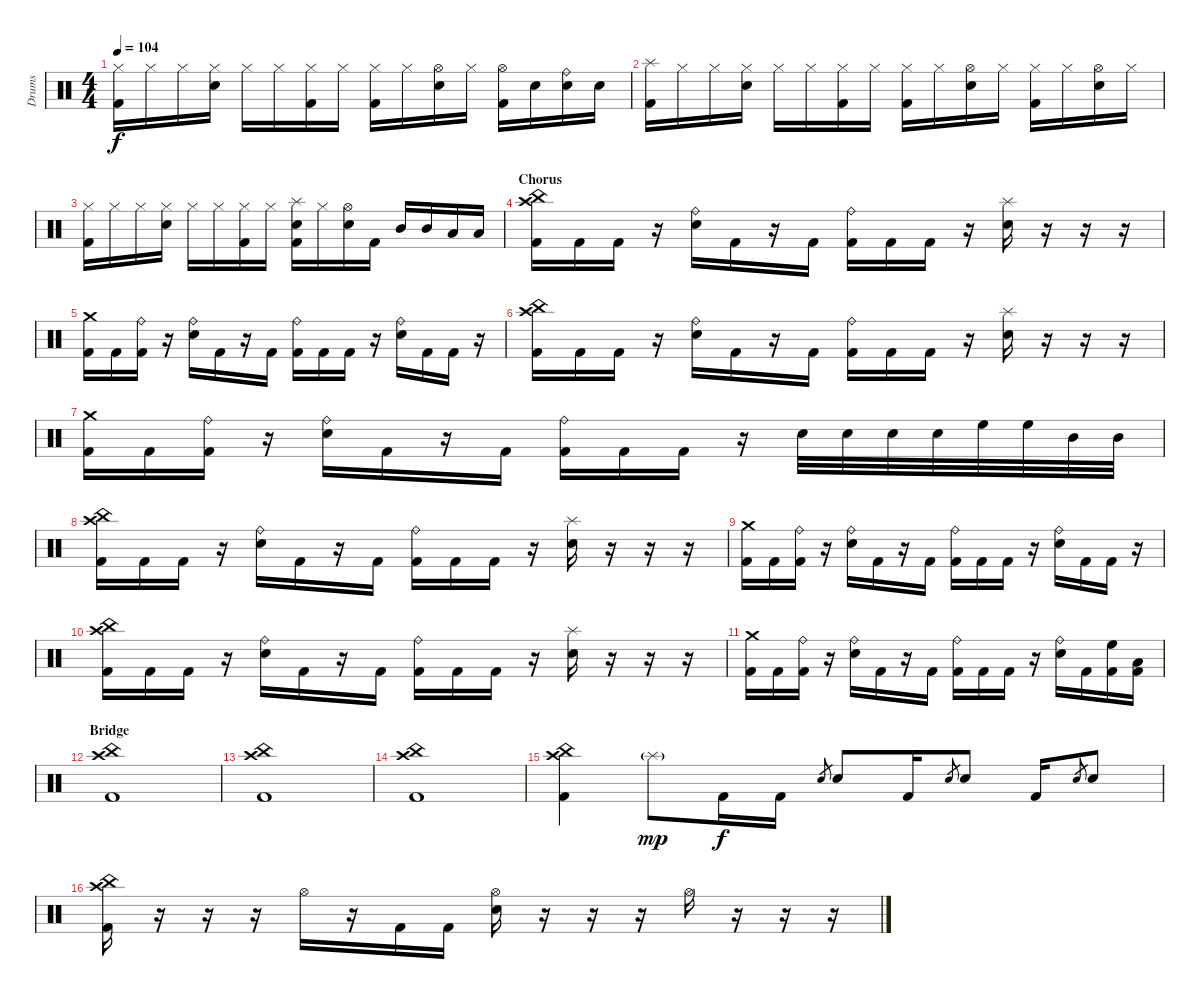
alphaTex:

\track ("Drums" "Drums") {instrument percussion}
\staff {score}
\articulation defaults
\ts (4 4)
\tempo 104
\clef neutral
\ks c
("Hi-Hat (closed)" "Kick (hit) 2").16{dy f} "Hi-Hat (closed)".16 "Hi-Hat (closed)".16 ("Hi-Hat (closed)" "Electric Snare (hit)").16 "Hi-Hat (closed)".16 "Hi-Hat (closed)".16 ("Hi-Hat (closed)" "Kick (hit) 2").16 "Hi-Hat (closed)".16 ("Hi-Hat (closed)" "Kick (hit) 2").16 "Hi-Hat (closed)".16 ("Hi-Hat (open)" "Electric Snare (hit)").16 "Hi-Hat (closed)".16 ("Hi-Hat (open)" "Kick (hit) 2").16 "Electric Snare (hit)".16 ("Ride (bell)" "Electric Snare (hit)").16 "Electric Snare (hit)".16 |
("Splash (hit)" "Kick (hit) 2").16 "Hi-Hat (closed)".16 "Hi-Hat (closed)".16 ("Hi-Hat (closed)" "Electric Snare (hit)").16 "Hi-Hat (closed)".16 "Hi-Hat (closed)".16 ("Hi-Hat (closed)" "Kick (hit) 2").16 "Hi-Hat (closed)".16 ("Hi-Hat (closed)" "Kick (hit) 2").16 "Hi-Hat (closed)".16 ("Hi-Hat (open)" "Electric Snare (hit)").16 "Hi-Hat (closed)".16 ("Hi-Hat (closed)" "Kick (hit) 2").16 "Hi-Hat (closed)".16 ("Hi-Hat (open)" "Electric Snare (hit)").16 "Hi-Hat (closed)".16 |
("Hi-Hat (closed)" "Kick (hit) 2").16 "Hi-Hat (closed)".16 "Hi-Hat (closed)".16 ("Hi-Hat (closed)" "Electric Snare (hit)").16 "Hi-Hat (closed)".16 "Hi-Hat (closed)".16 ("Hi-Hat (closed)" "Kick (hit) 2").16 "Hi-Hat (closed)".16 ("Splash (hit)" "Electric Snare (hit)" "Kick (hit) 2").16 "Hi-Hat (closed)".16 ("Hi-Hat (open)" "Electric Snare (hit)").16 "Kick (hit) 2".16 "Mid Tom (hit)".16 "Mid Tom (hit)".16 "Low Tom (hit)".16 "Low Tom (hit)".16 |
\section ("" "Chorus")
("China (hit)" "Crash high (hit)" "Kick (hit) 2").16 "Kick (hit) 2".16 "Kick (hit) 2".16 r.16 ("Ride (bell)" "Electric Snare (hit)").16 "Kick (hit) 2".16 r.16 "Kick (hit) 2".16 ("Ride (bell)" "Kick (hit) 2").16 "Kick (hit) 2".16 "Kick (hit) 2".16 r.16 ("Splash (hit)" "Electric Snare (hit)").16 r.16 r.16 r.16 |
("Crash medium (hit)" "Kick (hit) 2").16 "Kick (hit) 2".16 ("Ride (bell)" "Kick (hit) 2").16 r.16 ("Ride (bell)" "Electric Snare (hit)").16 "Kick (hit) 2".16 r.16 "Kick (hit) 2".16 ("Ride (bell)" "Kick (hit) 2").16 "Kick (hit) 2".16 "Kick (hit) 2".16 r.16 ("Ride (bell)" "Electric Snare (hit)").16 "Kick (hit) 2".16 "Kick (hit) 2".16 r.16 |
("China (hit)" "Crash high (hit)" "Kick (hit) 2").16 "Kick (hit) 2".16 "Kick (hit) 2".16 r.16 ("Ride (bell)" "Electric Snare (hit)").16 "Kick (hit) 2".16 r.16 "Kick (hit) 2".16 ("Ride (bell)" "Kick (hit) 2").16 "Kick (hit) 2".16 "Kick (hit) 2".16 r.16 ("Splash (hit)" "Electric Snare (hit)").16 r.16 r.16 r.16 |
("Crash medium (hit)" "Kick (hit) 2").16 "Kick (hit) 2".16 ("Ride (bell)" "Kick (hit) 2").16 r.16 ("Ride (bell)" "Electric Snare (hit)").16 "Kick (hit) 2".16 r.16 "Kick (hit) 2".16 ("Ride (bell)" "Kick (hit) 2").16 "Kick (hit) 2".16 "Kick (hit) 2".16 r.16 "Electric Snare (hit)".32 "Electric Snare (hit)".32 "Electric Snare (hit)".32 "Electric Snare (hit)".32 "High Floor Tom (hit)".32 "High Floor Tom (hit)".32 "Mid Tom (hit)".32 "Mid Tom (hit)".32 |
("China (hit)" "Crash high (hit)" "Kick (hit) 2").16 "Kick (hit) 2".16 "Kick (hit) 2".16 r.16 ("Ride (bell)" "Electric Snare (hit)").16 "Kick (hit) 2".16 r.16 "Kick (hit) 2".16 ("Ride (bell)" "Kick (hit) 2").16 "Kick (hit) 2".16 "Kick (hit) 2".16 r.16 ("Splash (hit)" "Electric Snare (hit)").16 r.16 r.16 r.16 |
("Crash medium (hit)" "Kick (hit) 2").16 "Kick (hit) 2".16 ("Ride (bell)" "Kick (hit) 2").16 r.16 ("Ride (bell)" "Electric Snare (hit)").16 "Kick (hit) 2".16 r.16 "Kick (hit) 2".16 ("Ride (bell)" "Kick (hit) 2").16 "Kick (hit) 2".16 "Kick (hit) 2".16 r.16 ("Ride (bell)" "Electric Snare (hit)").16 "Kick (hit) 2".16 "Kick (hit) 2".16 r.16 |
("China (hit)" "Crash high (hit)" "Kick (hit) 2").16 "Kick (hit) 2".16 "Kick (hit) 2".16 r.16 ("Ride (bell)" "Electric Snare (hit)").16 "Kick (hit) 2".16 r.16 "Kick (hit) 2".16 ("Ride (bell)" "Kick (hit) 2").16 "Kick (hit) 2".16 "Kick (hit) 2".16 r.16 ("Splash (hit)" "Electric Snare (hit)").16 r.16 r.16 r.16 |
("Crash medium (hit)" "Kick (hit) 2").16 "Kick (hit) 2".16 ("Ride (bell)" "Kick (hit) 2").16 r.16 ("Ride (bell)" "Electric Snare (hit)").16 "Kick (hit) 2".16 r.16 "Kick (hit) 2".16 ("Ride (bell)" "Kick (hit) 2").16 "Kick (hit) 2".16 "Kick (hit) 2".16 r.16 ("Ride (bell)" "Electric Snare (hit)").16 "Kick (hit) 2".16 ("High Floor Tom (hit)" "Kick (hit) 2").16 ("Low Floor Tom (hit)" "Kick (hit) 2").16 |
\section ("" "Bridge")
("Crash high (hit)" "China (hit)" "Kick (hit) 2").1 |
("Crash high (hit)" "China (hit)" "Kick (hit) 2").1 |
("Crash high (hit)" "China (hit)" "Kick (hit) 2").1 |
("Crash high (hit)" "China (hit)" "Kick (hit) 2").4 "Splash (hit)"{g}.8{dy mp} "Kick (hit) 2".16{dy f} "Kick (hit) 2".16 "Electric Snare (hit)".8{gr} "Electric Snare (hit)".8 "Kick (hit) 2".16 "Electric Snare (hit)".8{gr} "Electric Snare (hit)".8 "Kick (hit) 2".16 "Electric Snare (hit)".8{gr} "Electric Snare (hit)".8 |
("Crash high (hit)" "China (hit)" "Kick (hit) 2").16 r.16 r.16 r.16 "Hi-Hat (open)".16 r.16 "Kick (hit) 2".16 "Kick (hit) 2".16 ("Hi-Hat (open)" "Electric Snare (hit)").16 r.16 r.16 r.16 "Hi-Hat (open)".16 r.16 r.16 r.16
